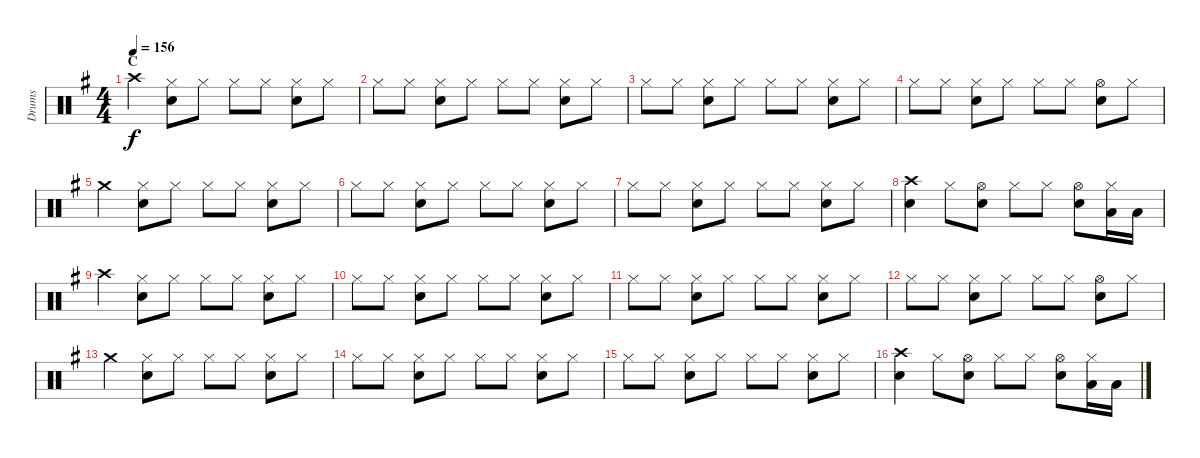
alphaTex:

\track ("Drums" "Drums") {instrument percussion}
\staff {score}
\articulation defaults
\ts (4 4)
\section ("" "C")
\tempo 156
\clef neutral
\ks g "Crash high (hit)".4{dy f}
("Hi-Hat (closed)" "Snare (hit) 2").8 "Hi-Hat (closed)".8 "Hi-Hat (closed)".8 "Hi-Hat (closed)".8 ("Hi-Hat (closed)" "Snare (hit) 2").8 "Hi-Hat (closed)".8 |
"Hi-Hat (closed)".8 "Hi-Hat (closed)".8 ("Hi-Hat (closed)" "Snare (hit) 2").8 "Hi-Hat (closed)".8 "Hi-Hat (closed)".8 "Hi-Hat (closed)".8 ("Hi-Hat (closed)" "Snare (hit) 2").8 "Hi-Hat (closed)".8 |
"Hi-Hat (closed)".8 "Hi-Hat (closed)".8 ("Hi-Hat (closed)" "Snare (hit) 2").8 "Hi-Hat (closed)".8 "Hi-Hat (closed)".8 "Hi-Hat (closed)".8 ("Hi-Hat (closed)" "Snare (hit) 2").8 "Hi-Hat (closed)".8 |
"Hi-Hat (closed)".8 "Hi-Hat (closed)".8 ("Hi-Hat (closed)" "Snare (hit) 2").8 "Hi-Hat (closed)".8 "Hi-Hat (closed)".8 "Hi-Hat (closed)".8 ("Hi-Hat (open)" "Snare (hit) 2").8 "Hi-Hat (closed)".8 |
"Crash medium (hit)".4 ("Hi-Hat (closed)" "Snare (hit) 2").8 "Hi-Hat (closed)".8 "Hi-Hat (closed)".8 "Hi-Hat (closed)".8 ("Hi-Hat (closed)" "Snare (hit) 2").8 "Hi-Hat (closed)".8 |
"Hi-Hat (closed)".8 "Hi-Hat (closed)".8 ("Hi-Hat (closed)" "Snare (hit) 2").8 "Hi-Hat (closed)".8 "Hi-Hat (closed)".8 "Hi-Hat (closed)".8 ("Hi-Hat (closed)" "Snare (hit) 2").8 "Hi-Hat (closed)".8 |
"Hi-Hat (closed)".8 "Hi-Hat (closed)".8 ("Hi-Hat (closed)" "Snare (hit) 2").8 "Hi-Hat (closed)".8 "Hi-Hat (closed)".8 "Hi-Hat (closed)".8 ("Hi-Hat (closed)" "Snare (hit) 2").8 "Hi-Hat (closed)".8 |
("Crash high (hit)" "Snare (hit) 2").4 "Hi-Hat (closed)".8 ("Hi-Hat (open)" "Snare (hit) 2").8 "Hi-Hat (closed)".8 "Hi-Hat (closed)".8 ("Hi-Hat (open)" "Snare (hit) 2").8 ("Hi-Hat (closed)" "Low Tom (hit)").16 "Low Tom (hit)".16 |
"Crash high (hit)".4 ("Hi-Hat (closed)" "Snare (hit) 2").8 "Hi-Hat (closed)".8 "Hi-Hat (closed)".8 "Hi-Hat (closed)".8 ("Hi-Hat (closed)" "Snare (hit) 2").8 "Hi-Hat (closed)".8 |
"Hi-Hat (closed)".8 "Hi-Hat (closed)".8 ("Hi-Hat (closed)" "Snare (hit) 2").8 "Hi-Hat (closed)".8 "Hi-Hat (closed)".8 "Hi-Hat (closed)".8 ("Hi-Hat (closed)" "Snare (hit) 2").8 "Hi-Hat (closed)".8 |
"Hi-Hat (closed)".8 "Hi-Hat (closed)".8 ("Hi-Hat (closed)" "Snare (hit) 2").8 "Hi-Hat (closed)".8 "Hi-Hat (closed)".8 "Hi-Hat (closed)".8 ("Hi-Hat (closed)" "Snare (hit) 2").8 "Hi-Hat (closed)".8 |
"Hi-Hat (closed)".8 "Hi-Hat (closed)".8 ("Hi-Hat (closed)" "Snare (hit) 2").8 "Hi-Hat (closed)".8 "Hi-Hat (closed)".8 "Hi-Hat (closed)".8 ("Hi-Hat (open)" "Snare (hit) 2").8 "Hi-Hat (closed)".8 |
"Crash medium (hit)".4 ("Hi-Hat (closed)" "Snare (hit) 2").8 "Hi-Hat (closed)".8 "Hi-Hat (closed)".8 "Hi-Hat (closed)".8 ("Hi-Hat (closed)" "Snare (hit) 2").8 "Hi-Hat (closed)".8 |
"Hi-Hat (closed)".8 "Hi-Hat (closed)".8 ("Hi-Hat (closed)" "Snare (hit) 2").8 "Hi-Hat (closed)".8 "Hi-Hat (closed)".8 "Hi-Hat (closed)".8 ("Hi-Hat (closed)" "Snare (hit) 2").8 "Hi-Hat (closed)".8 |
"Hi-Hat (closed)".8 "Hi-Hat (closed)".8 ("Hi-Hat (closed)" "Snare (hit) 2").8 "Hi-Hat (closed)".8 "Hi-Hat (closed)".8 "Hi-Hat (closed)".8 ("Hi-Hat (closed)" "Snare (hit) 2").8 "Hi-Hat (closed)".8 |
("Crash high (hit)" "Snare (hit) 2").4 "Hi-Hat (closed)".8 ("Hi-Hat (open)" "Snare (hit) 2").8 "Hi-Hat (closed)".8 "Hi-Hat (closed)".8 ("Hi-Hat (open)" "Snare (hit) 2").8 ("Hi-Hat (closed)" "Low Tom (hit)").16 "Low Tom (hit)".16
